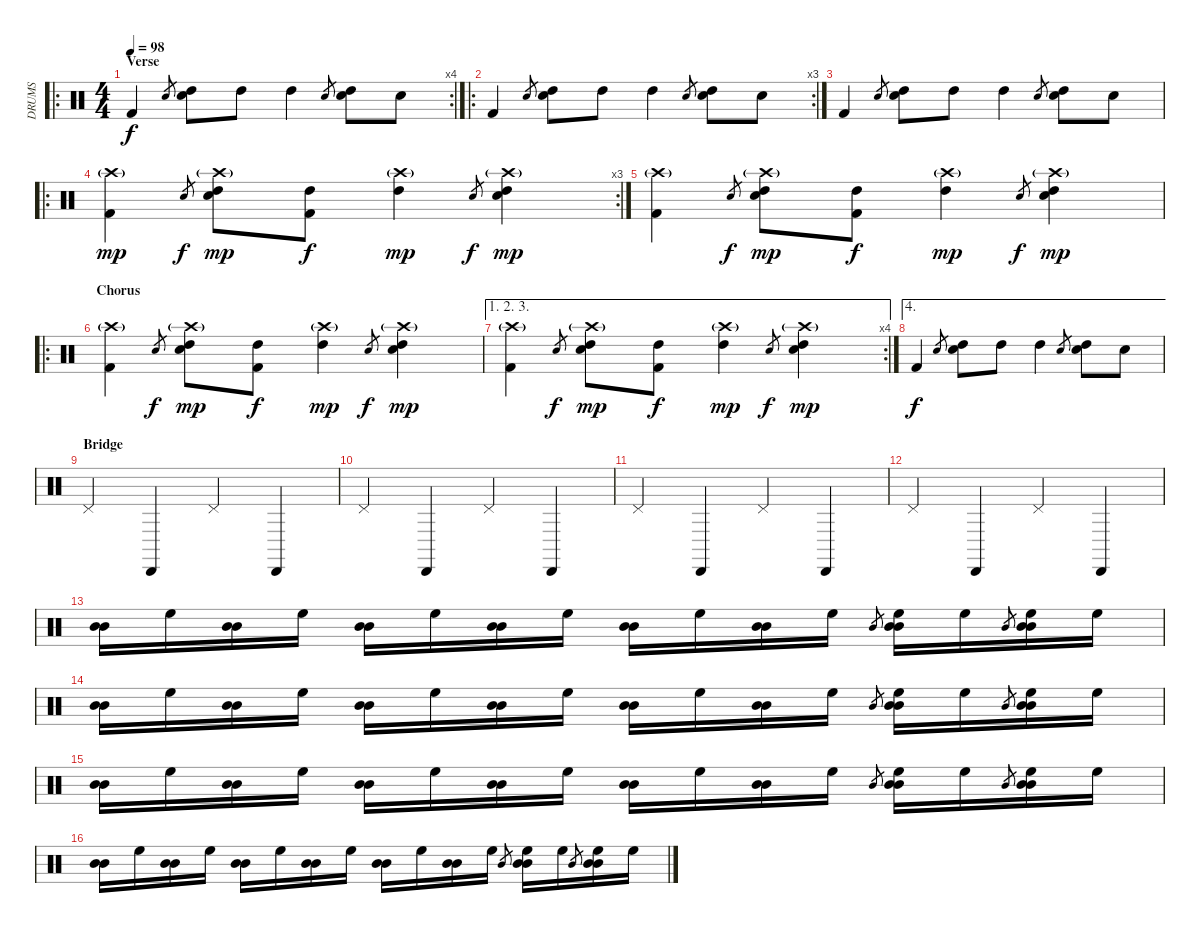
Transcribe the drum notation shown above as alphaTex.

\track ("DRUMS" "DRUMS") {instrument percussion}
\staff {score}
\articulation defaults
\ro
\rc 4
\ts (4 4)
\section ("" "Verse")
\tempo 98
\clef neutral
\ks c "Kick (hit) 2".4{dy f} "Electric Snare (hit)".8{gr}
("High Tom (hit)" "Electric Snare (hit)").8 "High Tom (hit)".8 "High Tom (hit)".4 "Electric Snare (hit)".8{gr} ("High Tom (hit)" "Electric Snare (hit)").8 "Electric Snare (hit)".8 |
\ro
\rc 3 "Kick (hit) 2".4 "Electric Snare (hit)".8{gr}
("High Tom (hit)" "Electric Snare (hit)").8 "High Tom (hit)".8 "High Tom (hit)".4 "Electric Snare (hit)".8{gr} ("High Tom (hit)" "Electric Snare (hit)").8 "Electric Snare (hit)".8 |
"Kick (hit) 2".4 "Electric Snare (hit)".8{gr} ("High Tom (hit)" "Electric Snare (hit)").8 "High Tom (hit)".8 "High Tom (hit)".4 "Electric Snare (hit)".8{gr} ("High Tom (hit)" "Electric Snare (hit)").8 "Electric Snare (hit)".8 |
\ro
\rc 3
("Kick (hit) 2" "Crash high (hit)"{g}).4{dy mp} "Electric Snare (hit)".8{gr dy f} ("High Tom (hit)" "Electric Snare (hit)" "Crash high (hit)"{g}).8{dy mp} ("Kick (hit) 2" "High Tom (hit)").8{dy f} ("High Tom (hit)" "Crash high (hit)"{g}).4{dy mp} "Electric Snare (hit)".8{gr dy f} ("High Tom (hit)" "Electric Snare (hit)" "Crash high (hit)"{g}).4{dy mp} |
("Kick (hit) 2" "Crash high (hit)"{g}).4 "Electric Snare (hit)".8{gr dy f} ("High Tom (hit)" "Electric Snare (hit)" "Crash high (hit)"{g}).8{dy mp} ("Kick (hit) 2" "High Tom (hit)").8{dy f} ("High Tom (hit)" "Crash high (hit)"{g}).4{dy mp} "Electric Snare (hit)".8{gr dy f} ("High Tom (hit)" "Electric Snare (hit)" "Crash high (hit)"{g}).4{dy mp} |
\ro
\section ("" "Chorus")
("Kick (hit) 2" "Crash high (hit)"{g}).4 "Electric Snare (hit)".8{gr dy f} ("High Tom (hit)" "Electric Snare (hit)" "Crash high (hit)"{g}).8{dy mp} ("Kick (hit) 2" "High Tom (hit)").8{dy f} ("High Tom (hit)" "Crash high (hit)"{g}).4{dy mp} "Electric Snare (hit)".8{gr dy f} ("High Tom (hit)" "Electric Snare (hit)" "Crash high (hit)"{g}).4{dy mp} |
\ae (1 2 3)
\rc 4
("Kick (hit) 2" "Crash high (hit)"{g}).4 "Electric Snare (hit)".8{gr dy f} ("High Tom (hit)" "Electric Snare (hit)" "Crash high (hit)"{g}).8{dy mp} ("Kick (hit) 2" "High Tom (hit)").8{dy f} ("High Tom (hit)" "Crash high (hit)"{g}).4{dy mp} "Electric Snare (hit)".8{gr dy f} ("High Tom (hit)" "Electric Snare (hit)" "Crash high (hit)"{g}).4{dy mp} |
\ae 4 "Kick (hit) 2".4{dy f} "Electric Snare (hit)".8{gr}
("High Tom (hit)" "Electric Snare (hit)").8 "High Tom (hit)".8 "High Tom (hit)".4 "Electric Snare (hit)".8{gr} ("High Tom (hit)" "Electric Snare (hit)").8 "Electric Snare (hit)".8 |
\section ("" "Bridge")
"Pedal Hi-Hat (hit)".4 "Cabasa (hit)".4 "Pedal Hi-Hat (hit)".4 "Cabasa (hit)".4 |
"Pedal Hi-Hat (hit)".4 "Cabasa (hit)".4 "Pedal Hi-Hat (hit)".4 "Cabasa (hit)".4 |
"Pedal Hi-Hat (hit)".4 "Cabasa (hit)".4 "Pedal Hi-Hat (hit)".4 "Cabasa (hit)".4 |
"Pedal Hi-Hat (hit)".4 "Cabasa (hit)".4 "Pedal Hi-Hat (hit)".4 "Cabasa (hit)".4 |
("Mid Tom (hit)" "Mid Tom (hit)").16 "High Floor Tom (hit)".16 ("Mid Tom (hit)" "Mid Tom (hit)").16 "High Floor Tom (hit)".16 ("Mid Tom (hit)" "Mid Tom (hit)").16 "High Floor Tom (hit)".16 ("Mid Tom (hit)" "Mid Tom (hit)").16 "High Floor Tom (hit)".16 ("Mid Tom (hit)" "Mid Tom (hit)").16 "High Floor Tom (hit)".16 ("Mid Tom (hit)" "Mid Tom (hit)").16 "High Floor Tom (hit)".16 "Mid Tom (hit)".8{gr} ("Mid Tom (hit)" "Mid Tom (hit)" "High Floor Tom (hit)").16 "High Floor Tom (hit)".16 "Mid Tom (hit)".8{gr} ("Mid Tom (hit)" "Mid Tom (hit)" "High Floor Tom (hit)").16 "High Floor Tom (hit)".16 |
("Mid Tom (hit)" "Mid Tom (hit)").16 "High Floor Tom (hit)".16 ("Mid Tom (hit)" "Mid Tom (hit)").16 "High Floor Tom (hit)".16 ("Mid Tom (hit)" "Mid Tom (hit)").16 "High Floor Tom (hit)".16 ("Mid Tom (hit)" "Mid Tom (hit)").16 "High Floor Tom (hit)".16 ("Mid Tom (hit)" "Mid Tom (hit)").16 "High Floor Tom (hit)".16 ("Mid Tom (hit)" "Mid Tom (hit)").16 "High Floor Tom (hit)".16 "Mid Tom (hit)".8{gr} ("Mid Tom (hit)" "Mid Tom (hit)" "High Floor Tom (hit)").16 "High Floor Tom (hit)".16 "Mid Tom (hit)".8{gr} ("Mid Tom (hit)" "Mid Tom (hit)" "High Floor Tom (hit)").16 "High Floor Tom (hit)".16 |
("Mid Tom (hit)" "Mid Tom (hit)").16 "High Floor Tom (hit)".16 ("Mid Tom (hit)" "Mid Tom (hit)").16 "High Floor Tom (hit)".16 ("Mid Tom (hit)" "Mid Tom (hit)").16 "High Floor Tom (hit)".16 ("Mid Tom (hit)" "Mid Tom (hit)").16 "High Floor Tom (hit)".16 ("Mid Tom (hit)" "Mid Tom (hit)").16 "High Floor Tom (hit)".16 ("Mid Tom (hit)" "Mid Tom (hit)").16 "High Floor Tom (hit)".16 "Mid Tom (hit)".8{gr} ("Mid Tom (hit)" "Mid Tom (hit)" "High Floor Tom (hit)").16 "High Floor Tom (hit)".16 "Mid Tom (hit)".8{gr} ("Mid Tom (hit)" "Mid Tom (hit)" "High Floor Tom (hit)").16 "High Floor Tom (hit)".16 |
("Mid Tom (hit)" "Mid Tom (hit)").16 "High Floor Tom (hit)".16 ("Mid Tom (hit)" "Mid Tom (hit)").16 "High Floor Tom (hit)".16 ("Mid Tom (hit)" "Mid Tom (hit)").16 "High Floor Tom (hit)".16 ("Mid Tom (hit)" "Mid Tom (hit)").16 "High Floor Tom (hit)".16 ("Mid Tom (hit)" "Mid Tom (hit)").16 "High Floor Tom (hit)".16 ("Mid Tom (hit)" "Mid Tom (hit)").16 "High Floor Tom (hit)".16 "Mid Tom (hit)".8{gr} ("Mid Tom (hit)" "Mid Tom (hit)" "High Floor Tom (hit)").16 "High Floor Tom (hit)".16 "Mid Tom (hit)".8{gr} ("Mid Tom (hit)" "Mid Tom (hit)" "High Floor Tom (hit)").16 "High Floor Tom (hit)".16
